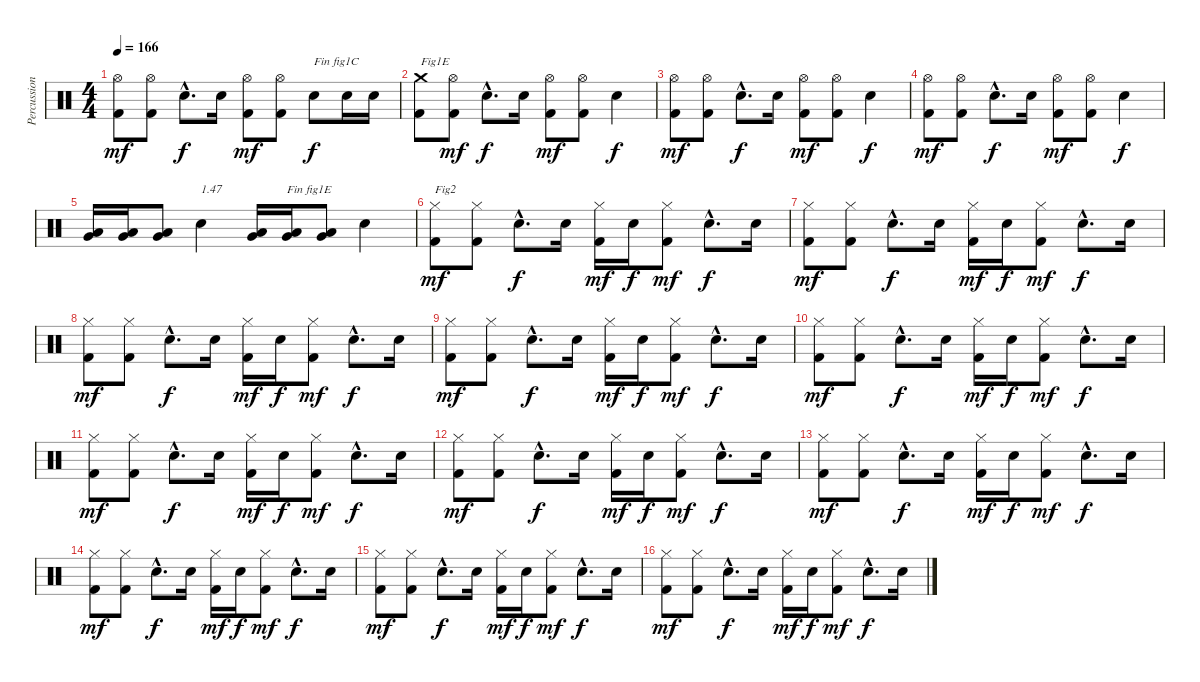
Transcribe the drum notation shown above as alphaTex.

\track ("Percussions" "Percussion") {instrument percussion}
\staff {score}
\articulation defaults
\ts (4 4)
\tempo 166
\clef neutral
\ks c
("Kick (hit) 2" "Hi-Hat (open)").8{dy mf} ("Kick (hit) 2" "Hi-Hat (open)").8 "Electric Snare (hit)"{hac}.8{d dy f} "Electric Snare (hit)".16 ("Kick (hit) 2" "Hi-Hat (open)").8{dy mf} ("Kick (hit) 2" "Hi-Hat (open)").8 "Electric Snare (hit)".8{txt "Fin fig1C" dy f} "Electric Snare (hit)".16 "Electric Snare (hit)".16 |
("Kick (hit) 2" "Crash medium (hit)").8{txt "Fig1E"} ("Kick (hit) 2" "Hi-Hat (open)").8{dy mf} "Electric Snare (hit)"{hac}.8{d dy f} "Electric Snare (hit)".16 ("Kick (hit) 2" "Hi-Hat (open)").8{dy mf} ("Kick (hit) 2" "Hi-Hat (open)").8 "Electric Snare (hit)".4{dy f} |
("Kick (hit) 2" "Hi-Hat (open)").8{dy mf} ("Kick (hit) 2" "Hi-Hat (open)").8 "Electric Snare (hit)"{hac}.8{d dy f} "Electric Snare (hit)".16 ("Kick (hit) 2" "Hi-Hat (open)").8{dy mf} ("Kick (hit) 2" "Hi-Hat (open)").8 "Electric Snare (hit)".4{dy f} |
("Kick (hit) 2" "Hi-Hat (open)").8{dy mf} ("Kick (hit) 2" "Hi-Hat (open)").8 "Electric Snare (hit)"{hac}.8{d dy f} "Electric Snare (hit)".16 ("Kick (hit) 2" "Hi-Hat (open)").8{dy mf} ("Kick (hit) 2" "Hi-Hat (open)").8 "Electric Snare (hit)".4{dy f} |
("Low Floor Tom (hit)" "Very Low Tom (hit)").16 ("Low Floor Tom (hit)" "Very Low Tom (hit)").16 ("Low Floor Tom (hit)" "Very Low Tom (hit)").8 "Electric Snare (hit)".4{txt "1.47"} ("Low Floor Tom (hit)" "Very Low Tom (hit)").16 ("Low Floor Tom (hit)" "Very Low Tom (hit)").16{txt "Fin fig1E"} ("Low Floor Tom (hit)" "Very Low Tom (hit)").8 "Electric Snare (hit)".4 |
("Kick (hit) 2" "Hi-Hat (closed)").8{txt "Fig2" dy mf} ("Kick (hit) 2" "Hi-Hat (closed)").8 "Electric Snare (hit)"{hac}.8{d dy f} "Electric Snare (hit)".16 ("Kick (hit) 2" "Hi-Hat (closed)").16{dy mf} "Electric Snare (hit)".16{dy f} ("Kick (hit) 2" "Hi-Hat (closed)").8{dy mf} "Electric Snare (hit)"{hac}.8{d dy f} "Electric Snare (hit)".16 |
("Kick (hit) 2" "Hi-Hat (closed)").8{dy mf} ("Kick (hit) 2" "Hi-Hat (closed)").8 "Electric Snare (hit)"{hac}.8{d dy f} "Electric Snare (hit)".16 ("Kick (hit) 2" "Hi-Hat (closed)").16{dy mf} "Electric Snare (hit)".16{dy f} ("Kick (hit) 2" "Hi-Hat (closed)").8{dy mf} "Electric Snare (hit)"{hac}.8{d dy f} "Electric Snare (hit)".16 |
("Kick (hit) 2" "Hi-Hat (closed)").8{dy mf} ("Kick (hit) 2" "Hi-Hat (closed)").8 "Electric Snare (hit)"{hac}.8{d dy f} "Electric Snare (hit)".16 ("Kick (hit) 2" "Hi-Hat (closed)").16{dy mf} "Electric Snare (hit)".16{dy f} ("Kick (hit) 2" "Hi-Hat (closed)").8{dy mf} "Electric Snare (hit)"{hac}.8{d dy f} "Electric Snare (hit)".16 |
("Kick (hit) 2" "Hi-Hat (closed)").8{dy mf} ("Kick (hit) 2" "Hi-Hat (closed)").8 "Electric Snare (hit)"{hac}.8{d dy f} "Electric Snare (hit)".16 ("Kick (hit) 2" "Hi-Hat (closed)").16{dy mf} "Electric Snare (hit)".16{dy f} ("Kick (hit) 2" "Hi-Hat (closed)").8{dy mf} "Electric Snare (hit)"{hac}.8{d dy f} "Electric Snare (hit)".16 |
("Kick (hit) 2" "Hi-Hat (closed)").8{dy mf} ("Kick (hit) 2" "Hi-Hat (closed)").8 "Electric Snare (hit)"{hac}.8{d dy f} "Electric Snare (hit)".16 ("Kick (hit) 2" "Hi-Hat (closed)").16{dy mf} "Electric Snare (hit)".16{dy f} ("Kick (hit) 2" "Hi-Hat (closed)").8{dy mf} "Electric Snare (hit)"{hac}.8{d dy f} "Electric Snare (hit)".16 |
("Kick (hit) 2" "Hi-Hat (closed)").8{dy mf} ("Kick (hit) 2" "Hi-Hat (closed)").8 "Electric Snare (hit)"{hac}.8{d dy f} "Electric Snare (hit)".16 ("Kick (hit) 2" "Hi-Hat (closed)").16{dy mf} "Electric Snare (hit)".16{dy f} ("Kick (hit) 2" "Hi-Hat (closed)").8{dy mf} "Electric Snare (hit)"{hac}.8{d dy f} "Electric Snare (hit)".16 |
("Kick (hit) 2" "Hi-Hat (closed)").8{dy mf} ("Kick (hit) 2" "Hi-Hat (closed)").8 "Electric Snare (hit)"{hac}.8{d dy f} "Electric Snare (hit)".16 ("Kick (hit) 2" "Hi-Hat (closed)").16{dy mf} "Electric Snare (hit)".16{dy f} ("Kick (hit) 2" "Hi-Hat (closed)").8{dy mf} "Electric Snare (hit)"{hac}.8{d dy f} "Electric Snare (hit)".16 |
("Kick (hit) 2" "Hi-Hat (closed)").8{dy mf} ("Kick (hit) 2" "Hi-Hat (closed)").8 "Electric Snare (hit)"{hac}.8{d dy f} "Electric Snare (hit)".16 ("Kick (hit) 2" "Hi-Hat (closed)").16{dy mf} "Electric Snare (hit)".16{dy f} ("Kick (hit) 2" "Hi-Hat (closed)").8{dy mf} "Electric Snare (hit)"{hac}.8{d dy f} "Electric Snare (hit)".16 |
("Kick (hit) 2" "Hi-Hat (closed)").8{dy mf} ("Kick (hit) 2" "Hi-Hat (closed)").8 "Electric Snare (hit)"{hac}.8{d dy f} "Electric Snare (hit)".16 ("Kick (hit) 2" "Hi-Hat (closed)").16{dy mf} "Electric Snare (hit)".16{dy f} ("Kick (hit) 2" "Hi-Hat (closed)").8{dy mf} "Electric Snare (hit)"{hac}.8{d dy f} "Electric Snare (hit)".16 |
("Kick (hit) 2" "Hi-Hat (closed)").8{dy mf} ("Kick (hit) 2" "Hi-Hat (closed)").8 "Electric Snare (hit)"{hac}.8{d dy f} "Electric Snare (hit)".16 ("Kick (hit) 2" "Hi-Hat (closed)").16{dy mf} "Electric Snare (hit)".16{dy f} ("Kick (hit) 2" "Hi-Hat (closed)").8{dy mf} "Electric Snare (hit)"{hac}.8{d dy f} "Electric Snare (hit)".16 |
("Kick (hit) 2" "Hi-Hat (closed)").8{dy mf} ("Kick (hit) 2" "Hi-Hat (closed)").8 "Electric Snare (hit)"{hac}.8{d dy f} "Electric Snare (hit)".16 ("Kick (hit) 2" "Hi-Hat (closed)").16{dy mf} "Electric Snare (hit)".16{dy f} ("Kick (hit) 2" "Hi-Hat (closed)").8{dy mf} "Electric Snare (hit)"{hac}.8{d dy f} "Electric Snare (hit)".16
